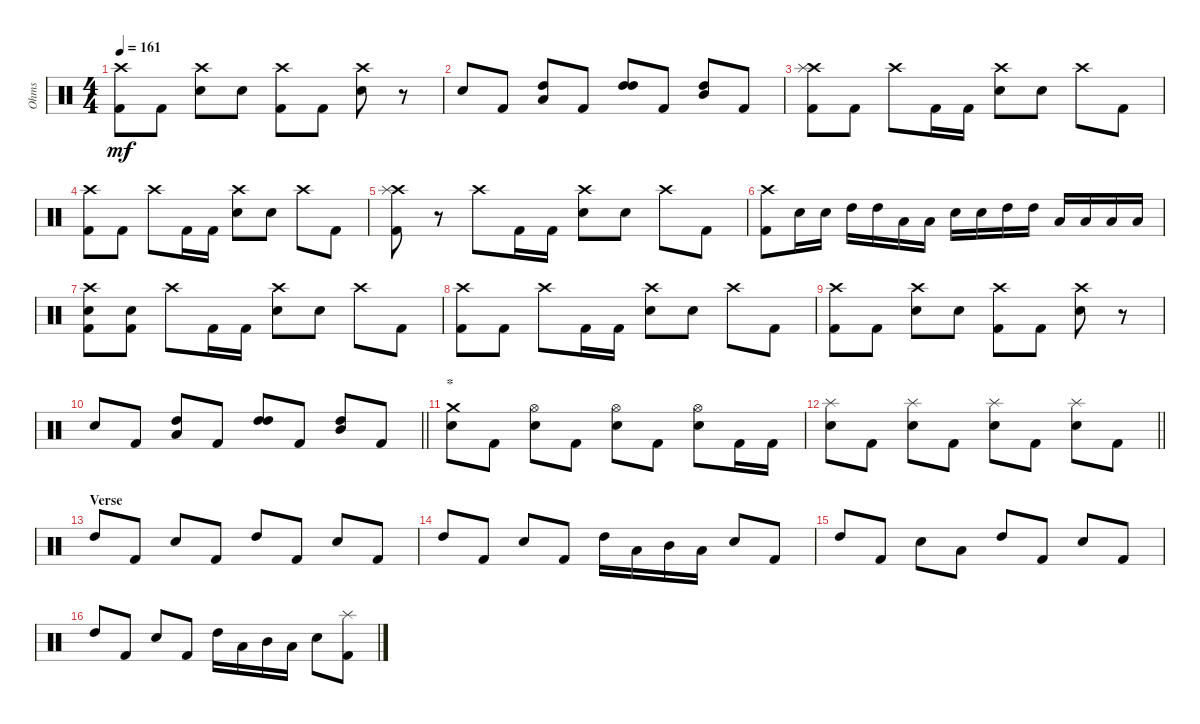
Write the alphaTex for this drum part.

\track ("Ohms" "Ohms") {instrument percussion}
\staff {score}
\articulation defaults
\ts (4 4)
\tempo 161
\clef neutral
\ks c
("Crash high (hit)" "Kick (hit) 2").8{dy mf} "Kick (hit) 2".8 ("Crash high (hit)" "Snare (hit) 2").8 "Snare (hit) 2".8 ("Crash high (hit)" "Kick (hit) 2").8 "Kick (hit) 2".8 ("Crash high (hit)" "Snare (hit) 2").8 r.8 |
"Snare (hit) 2".8 "Kick (hit) 2".8 ("High Tom (hit)" "Low Tom (hit)").8 "Kick (hit) 2".8 ("High Tom (hit)" "High Tom (hit)").8 "Kick (hit) 2".8 ("High Tom (hit)" "Mid Tom (hit)").8 "Kick (hit) 2".8 |
("Crash high (hit)" "Splash (hit)" "Kick (hit) 2").8 "Kick (hit) 2".8 "Crash high (hit)".8 "Kick (hit) 2".16 "Kick (hit) 2".16 ("Crash high (hit)" "Snare (hit) 2").8 "Snare (hit) 2".8 "Crash high (hit)".8 "Kick (hit) 2".8 |
("Crash high (hit)" "Kick (hit) 2").8 "Kick (hit) 2".8 "Crash high (hit)".8 "Kick (hit) 2".16 "Kick (hit) 2".16 ("Crash high (hit)" "Snare (hit) 2").8 "Snare (hit) 2".8 "Crash high (hit)".8 "Kick (hit) 2".8 |
("Crash high (hit)" "Splash (hit)" "Kick (hit) 2").8 r.8 "Crash high (hit)".8 "Kick (hit) 2".16 "Kick (hit) 2".16 ("Crash high (hit)" "Snare (hit) 2").8 "Snare (hit) 2".8 "Crash high (hit)".8 "Kick (hit) 2".8 |
("Crash high (hit)" "Kick (hit) 2").8 "Snare (hit) 2".16 "Snare (hit) 2".16 "High Tom (hit)".16 "High Tom (hit)".16 "Low Tom (hit)".16 "Low Tom (hit)".16 "Snare (hit) 2".16 "Snare (hit) 2".16 "High Tom (hit)".16 "High Tom (hit)".16 "Low Tom (hit)".16 "Low Tom (hit)".16 "Low Tom (hit)".16 "Low Tom (hit)".16 |
("Crash high (hit)" "Snare (hit) 2" "Kick (hit) 2").8 ("Snare (hit) 2" "Kick (hit) 2").8 "Crash high (hit)".8 "Kick (hit) 2".16 "Kick (hit) 2".16 ("Crash high (hit)" "Snare (hit) 2").8 "Snare (hit) 2".8 "Crash high (hit)".8 "Kick (hit) 2".8 |
("Crash high (hit)" "Kick (hit) 2").8 "Kick (hit) 2".8 "Crash high (hit)".8 "Kick (hit) 2".16 "Kick (hit) 2".16 ("Crash high (hit)" "Snare (hit) 2").8 "Snare (hit) 2".8 "Crash high (hit)".8 "Kick (hit) 2".8 |
("Crash high (hit)" "Kick (hit) 2").8 "Kick (hit) 2".8 ("Crash high (hit)" "Snare (hit) 2").8 "Snare (hit) 2".8 ("Crash high (hit)" "Kick (hit) 2").8 "Kick (hit) 2".8 ("Crash high (hit)" "Snare (hit) 2").8 r.8 |
\barLineRight lightlight "Snare (hit) 2".8 "Kick (hit) 2".8
("High Tom (hit)" "Low Tom (hit)").8 "Kick (hit) 2".8 ("High Tom (hit)" "High Tom (hit)").8 "Kick (hit) 2".8 ("High Tom (hit)" "Mid Tom (hit)").8 "Kick (hit) 2".8 |
\section ("" "*")
("Crash medium (hit)" "Snare (hit) 2").8 "Kick (hit) 2".8 ("Hi-Hat (open)" "Snare (hit) 2").8 "Kick (hit) 2".8 ("Hi-Hat (open)" "Snare (hit) 2").8 "Kick (hit) 2".8 ("Hi-Hat (open)" "Snare (hit) 2").8 "Kick (hit) 2".16 "Kick (hit) 2".16 |
\barLineRight lightlight
("Splash (hit)" "Snare (hit) 2").8 "Kick (hit) 2".8 ("Splash (hit)" "Snare (hit) 2").8 "Kick (hit) 2".8 ("Splash (hit)" "Snare (hit) 2").8 "Kick (hit) 2".8 ("Splash (hit)" "Snare (hit) 2").8 "Kick (hit) 2".8 |
\section ("" "Verse")
"High Tom (hit)".8 "Kick (hit) 2".8 "Snare (hit) 2".8 "Kick (hit) 2".8 "High Tom (hit)".8 "Kick (hit) 2".8 "Snare (hit) 2".8 "Kick (hit) 2".8 |
"High Tom (hit)".8 "Kick (hit) 2".8 "Snare (hit) 2".8 "Kick (hit) 2".8 "High Tom (hit)".16 "Low Tom (hit)".16 "Mid Tom (hit)".16 "Low Tom (hit)".16 "Snare (hit) 2".8 "Kick (hit) 2".8 |
"High Tom (hit)".8 "Kick (hit) 2".8 "Snare (hit) 2".8 "Low Tom (hit)".8 "High Tom (hit)".8 "Kick (hit) 2".8 "Snare (hit) 2".8 "Kick (hit) 2".8 |
"High Tom (hit)".8 "Kick (hit) 2".8 "Snare (hit) 2".8 "Kick (hit) 2".8 "High Tom (hit)".16 "Low Tom (hit)".16 "Mid Tom (hit)".16 "Low Tom (hit)".16 "Snare (hit) 2".8 ("Splash (hit)" "Kick (hit) 2").8
